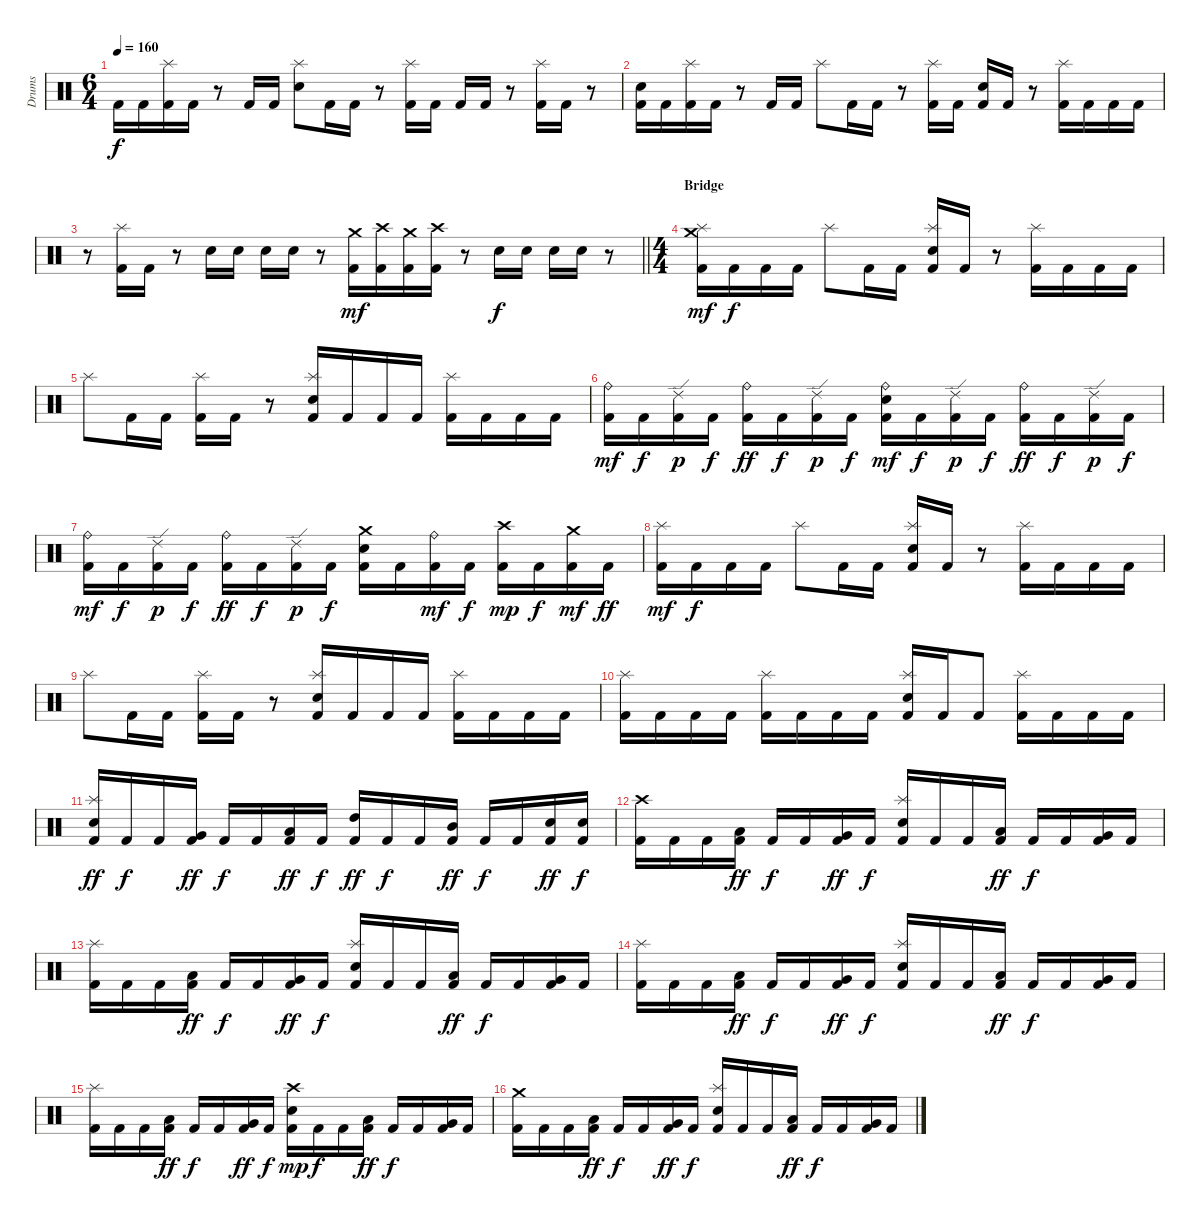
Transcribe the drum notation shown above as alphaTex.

\track ("Drums" "Drums") {instrument percussion}
\staff {score}
\articulation defaults
\ts (6 4)
\tempo 160
\clef neutral
\ks c "Kick (hit) 2".16{dy f} "Kick (hit) 2".16
("Splash (hit)" "Kick (hit) 2").16 "Kick (hit) 2".16 r.8 "Kick (hit) 2".16 "Kick (hit) 2".16 ("Splash (hit)" "Snare (hit) 2").8 "Kick (hit) 2".16 "Kick (hit) 2".16 r.8 ("Splash (hit)" "Kick (hit) 2").16 "Kick (hit) 2".16 "Kick (hit) 2".16 "Kick (hit) 2".16 r.8 ("Splash (hit)" "Kick (hit) 2").16 "Kick (hit) 2".16 r.8 |
("Snare (hit) 2" "Kick (hit) 2").16 "Kick (hit) 2".16 ("Splash (hit)" "Kick (hit) 2").16 "Kick (hit) 2".16 r.8 "Kick (hit) 2".16 "Kick (hit) 2".16 "Splash (hit)".8 "Kick (hit) 2".16 "Kick (hit) 2".16 r.8 ("Splash (hit)" "Kick (hit) 2").16 "Kick (hit) 2".16 ("Snare (hit) 2" "Kick (hit) 2").16 "Kick (hit) 2".16 r.8 ("Splash (hit)" "Kick (hit) 2").16 "Kick (hit) 2".16 "Kick (hit) 2".16 "Kick (hit) 2".16 |
\barLineRight lightlight
r.8 ("Splash (hit)" "Kick (hit) 2").16 "Kick (hit) 2".16 r.8 "Snare (hit) 2".16 "Snare (hit) 2".16 "Snare (hit) 2".16 "Snare (hit) 2".16 r.8 ("Crash medium (hit)" "Kick (hit) 2").16{dy mf} ("Crash high (hit)" "Kick (hit) 2").16 ("Crash medium (hit)" "Kick (hit) 2").16 ("Crash high (hit)" "Kick (hit) 2").16 r.8 "Snare (hit) 2".16{dy f} "Snare (hit) 2".16 "Snare (hit) 2".16 "Snare (hit) 2".16 r.8 |
\ts (4 4)
\section ("" "Bridge")
("Crash medium (hit)" "Splash (hit)" "Kick (hit) 2").16{dy mf} "Kick (hit) 2".16{dy f} "Kick (hit) 2".16 "Kick (hit) 2".16 "Splash (hit)".8 "Kick (hit) 2".16 "Kick (hit) 2".16 ("Splash (hit)" "Snare (hit) 2" "Kick (hit) 2").16 "Kick (hit) 2".16 r.8 ("Splash (hit)" "Kick (hit) 2").16 "Kick (hit) 2".16 "Kick (hit) 2".16 "Kick (hit) 2".16 |
"Splash (hit)".8 "Kick (hit) 2".16 "Kick (hit) 2".16 ("Splash (hit)" "Kick (hit) 2").16 "Kick (hit) 2".16 r.8 ("Splash (hit)" "Snare (hit) 2" "Kick (hit) 2").16 "Kick (hit) 2".16 "Kick (hit) 2".16 "Kick (hit) 2".16 ("Splash (hit)" "Kick (hit) 2").16 "Kick (hit) 2".16 "Kick (hit) 2".16 "Kick (hit) 2".16 |
("Ride (bell)" "Kick (hit) 2").16{dy mf} "Kick (hit) 2".16{dy f} ("Ride (edge) 2" "Kick (hit) 2").16{dy p} "Kick (hit) 2".16{dy f} ("Ride (bell)" "Kick (hit) 2").16{dy ff} "Kick (hit) 2".16{dy f} ("Ride (edge) 2" "Kick (hit) 2").16{dy p} "Kick (hit) 2".16{dy f} ("Ride (bell)" "Snare (hit) 2" "Kick (hit) 2").16{dy mf} "Kick (hit) 2".16{dy f} ("Ride (edge) 2" "Kick (hit) 2").16{dy p} "Kick (hit) 2".16{dy f} ("Ride (bell)" "Kick (hit) 2").16{dy ff} "Kick (hit) 2".16{dy f} ("Ride (edge) 2" "Kick (hit) 2").16{dy p} "Kick (hit) 2".16{dy f} |
("Ride (bell)" "Kick (hit) 2").16{dy mf} "Kick (hit) 2".16{dy f} ("Ride (edge) 2" "Kick (hit) 2").16{dy p} "Kick (hit) 2".16{dy f} ("Ride (bell)" "Kick (hit) 2").16{dy ff} "Kick (hit) 2".16{dy f} ("Ride (edge) 2" "Kick (hit) 2").16{dy p} "Kick (hit) 2".16{dy f} ("Crash medium (hit)" "Snare (hit) 2" "Kick (hit) 2").16 "Kick (hit) 2".16 ("Ride (bell)" "Kick (hit) 2").16{dy mf} "Kick (hit) 2".16{dy f} ("Crash high (hit)" "Kick (hit) 2").16{dy mp} "Kick (hit) 2".16{dy f} ("Crash medium (hit)" "Kick (hit) 2").16{dy mf} "Kick (hit) 2".16{dy ff} |
("Splash (hit)" "Kick (hit) 2").16{dy mf} "Kick (hit) 2".16{dy f} "Kick (hit) 2".16 "Kick (hit) 2".16 "Splash (hit)".8 "Kick (hit) 2".16 "Kick (hit) 2".16 ("Splash (hit)" "Snare (hit) 2" "Kick (hit) 2").16 "Kick (hit) 2".16 r.8 ("Splash (hit)" "Kick (hit) 2").16 "Kick (hit) 2".16 "Kick (hit) 2".16 "Kick (hit) 2".16 |
"Splash (hit)".8 "Kick (hit) 2".16 "Kick (hit) 2".16 ("Splash (hit)" "Kick (hit) 2").16 "Kick (hit) 2".16 r.8 ("Splash (hit)" "Snare (hit) 2" "Kick (hit) 2").16 "Kick (hit) 2".16 "Kick (hit) 2".16 "Kick (hit) 2".16 ("Splash (hit)" "Kick (hit) 2").16 "Kick (hit) 2".16 "Kick (hit) 2".16 "Kick (hit) 2".16 |
("Splash (hit)" "Kick (hit) 2").16 "Kick (hit) 2".16 "Kick (hit) 2".16 "Kick (hit) 2".16 ("Splash (hit)" "Kick (hit) 2").16 "Kick (hit) 2".16 "Kick (hit) 2".16 "Kick (hit) 2".16 ("Splash (hit)" "Snare (hit) 2" "Kick (hit) 2").16 "Kick (hit) 2".16 "Kick (hit) 2".8 ("Splash (hit)" "Kick (hit) 2").16 "Kick (hit) 2".16 "Kick (hit) 2".16 "Kick (hit) 2".16 |
("Splash (hit)" "Snare (hit) 2" "Kick (hit) 2").16{dy ff} "Kick (hit) 2".16{dy f} "Kick (hit) 2".16 ("Very Low Tom (hit)" "Kick (hit) 2").16{dy ff} "Kick (hit) 2".16{dy f} "Kick (hit) 2".16 ("Low Floor Tom (hit)" "Kick (hit) 2").16{dy ff} "Kick (hit) 2".16{dy f} ("High Tom (hit)" "Kick (hit) 2").16{dy ff} "Kick (hit) 2".16{dy f} "Kick (hit) 2".16 ("Mid Tom (hit)" "Kick (hit) 2").16{dy ff} "Kick (hit) 2".16{dy f} "Kick (hit) 2".16 ("Snare (hit) 2" "Kick (hit) 2").16{dy ff} ("Snare (hit) 2" "Kick (hit) 2").16{dy f} |
("Crash high (hit)" "Kick (hit) 2").16 "Kick (hit) 2".16 "Kick (hit) 2".16 ("Low Tom (hit)" "Kick (hit) 2").16{dy ff} "Kick (hit) 2".16{dy f} "Kick (hit) 2".16 ("Very Low Tom (hit)" "Kick (hit) 2").16{dy ff} "Kick (hit) 2".16{dy f} ("Splash (hit)" "Snare (hit) 2" "Kick (hit) 2").16 "Kick (hit) 2".16 "Kick (hit) 2".16 ("Low Tom (hit)" "Kick (hit) 2").16{dy ff} "Kick (hit) 2".16{dy f} "Kick (hit) 2".16 ("Very Low Tom (hit)" "Kick (hit) 2").16 "Kick (hit) 2".16 |
("Splash (hit)" "Kick (hit) 2").16 "Kick (hit) 2".16 "Kick (hit) 2".16 ("Low Tom (hit)" "Kick (hit) 2").16{dy ff} "Kick (hit) 2".16{dy f} "Kick (hit) 2".16 ("Very Low Tom (hit)" "Kick (hit) 2").16{dy ff} "Kick (hit) 2".16{dy f} ("Splash (hit)" "Snare (hit) 2" "Kick (hit) 2").16 "Kick (hit) 2".16 "Kick (hit) 2".16 ("Low Tom (hit)" "Kick (hit) 2").16{dy ff} "Kick (hit) 2".16{dy f} "Kick (hit) 2".16 ("Very Low Tom (hit)" "Kick (hit) 2").16 "Kick (hit) 2".16 |
("Splash (hit)" "Kick (hit) 2").16 "Kick (hit) 2".16 "Kick (hit) 2".16 ("Low Tom (hit)" "Kick (hit) 2").16{dy ff} "Kick (hit) 2".16{dy f} "Kick (hit) 2".16 ("Very Low Tom (hit)" "Kick (hit) 2").16{dy ff} "Kick (hit) 2".16{dy f} ("Splash (hit)" "Snare (hit) 2" "Kick (hit) 2").16 "Kick (hit) 2".16 "Kick (hit) 2".16 ("Low Tom (hit)" "Kick (hit) 2").16{dy ff} "Kick (hit) 2".16{dy f} "Kick (hit) 2".16 ("Very Low Tom (hit)" "Kick (hit) 2").16 "Kick (hit) 2".16 |
("Splash (hit)" "Kick (hit) 2").16 "Kick (hit) 2".16 "Kick (hit) 2".16 ("Low Tom (hit)" "Kick (hit) 2").16{dy ff} "Kick (hit) 2".16{dy f} "Kick (hit) 2".16 ("Very Low Tom (hit)" "Kick (hit) 2").16{dy ff} "Kick (hit) 2".16{dy f} ("Crash high (hit)" "Snare (hit) 2" "Kick (hit) 2").16{dy mp} "Kick (hit) 2".16{dy f} "Kick (hit) 2".16 ("Low Tom (hit)" "Kick (hit) 2").16{dy ff} "Kick (hit) 2".16{dy f} "Kick (hit) 2".16 ("Very Low Tom (hit)" "Kick (hit) 2").16 "Kick (hit) 2".16 |
("Crash medium (hit)" "Kick (hit) 2").16 "Kick (hit) 2".16 "Kick (hit) 2".16 ("Low Tom (hit)" "Kick (hit) 2").16{dy ff} "Kick (hit) 2".16{dy f} "Kick (hit) 2".16 ("Very Low Tom (hit)" "Kick (hit) 2").16{dy ff} "Kick (hit) 2".16{dy f} ("Splash (hit)" "Snare (hit) 2" "Kick (hit) 2").16 "Kick (hit) 2".16 "Kick (hit) 2".16 ("Low Tom (hit)" "Kick (hit) 2").16{dy ff} "Kick (hit) 2".16{dy f} "Kick (hit) 2".16 ("Very Low Tom (hit)" "Kick (hit) 2").16 "Kick (hit) 2".16
